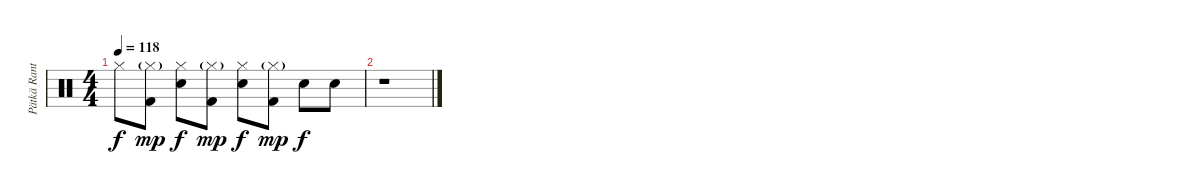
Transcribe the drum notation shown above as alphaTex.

\track ("Pätkä Rantala (Drums)" "Pätkä Rant") {instrument percussion}
\staff {score}
\articulation defaults
\ts (4 4)
\tempo 118
\clef neutral
\ks c "Hi-Hat (closed)".8{dy f}
("Hi-Hat (closed)"{g} "Kick (hit) 2").8{dy mp} ("Hi-Hat (closed)" "Snare (hit) 2").8{dy f} ("Hi-Hat (closed)"{g} "Kick (hit) 2").8{dy mp} ("Hi-Hat (closed)" "Snare (hit) 2").8{dy f} ("Hi-Hat (closed)"{g} "Kick (hit) 2").8{dy mp} "Snare (hit) 2".8{dy f} "Snare (hit) 2".8 |
r.1
